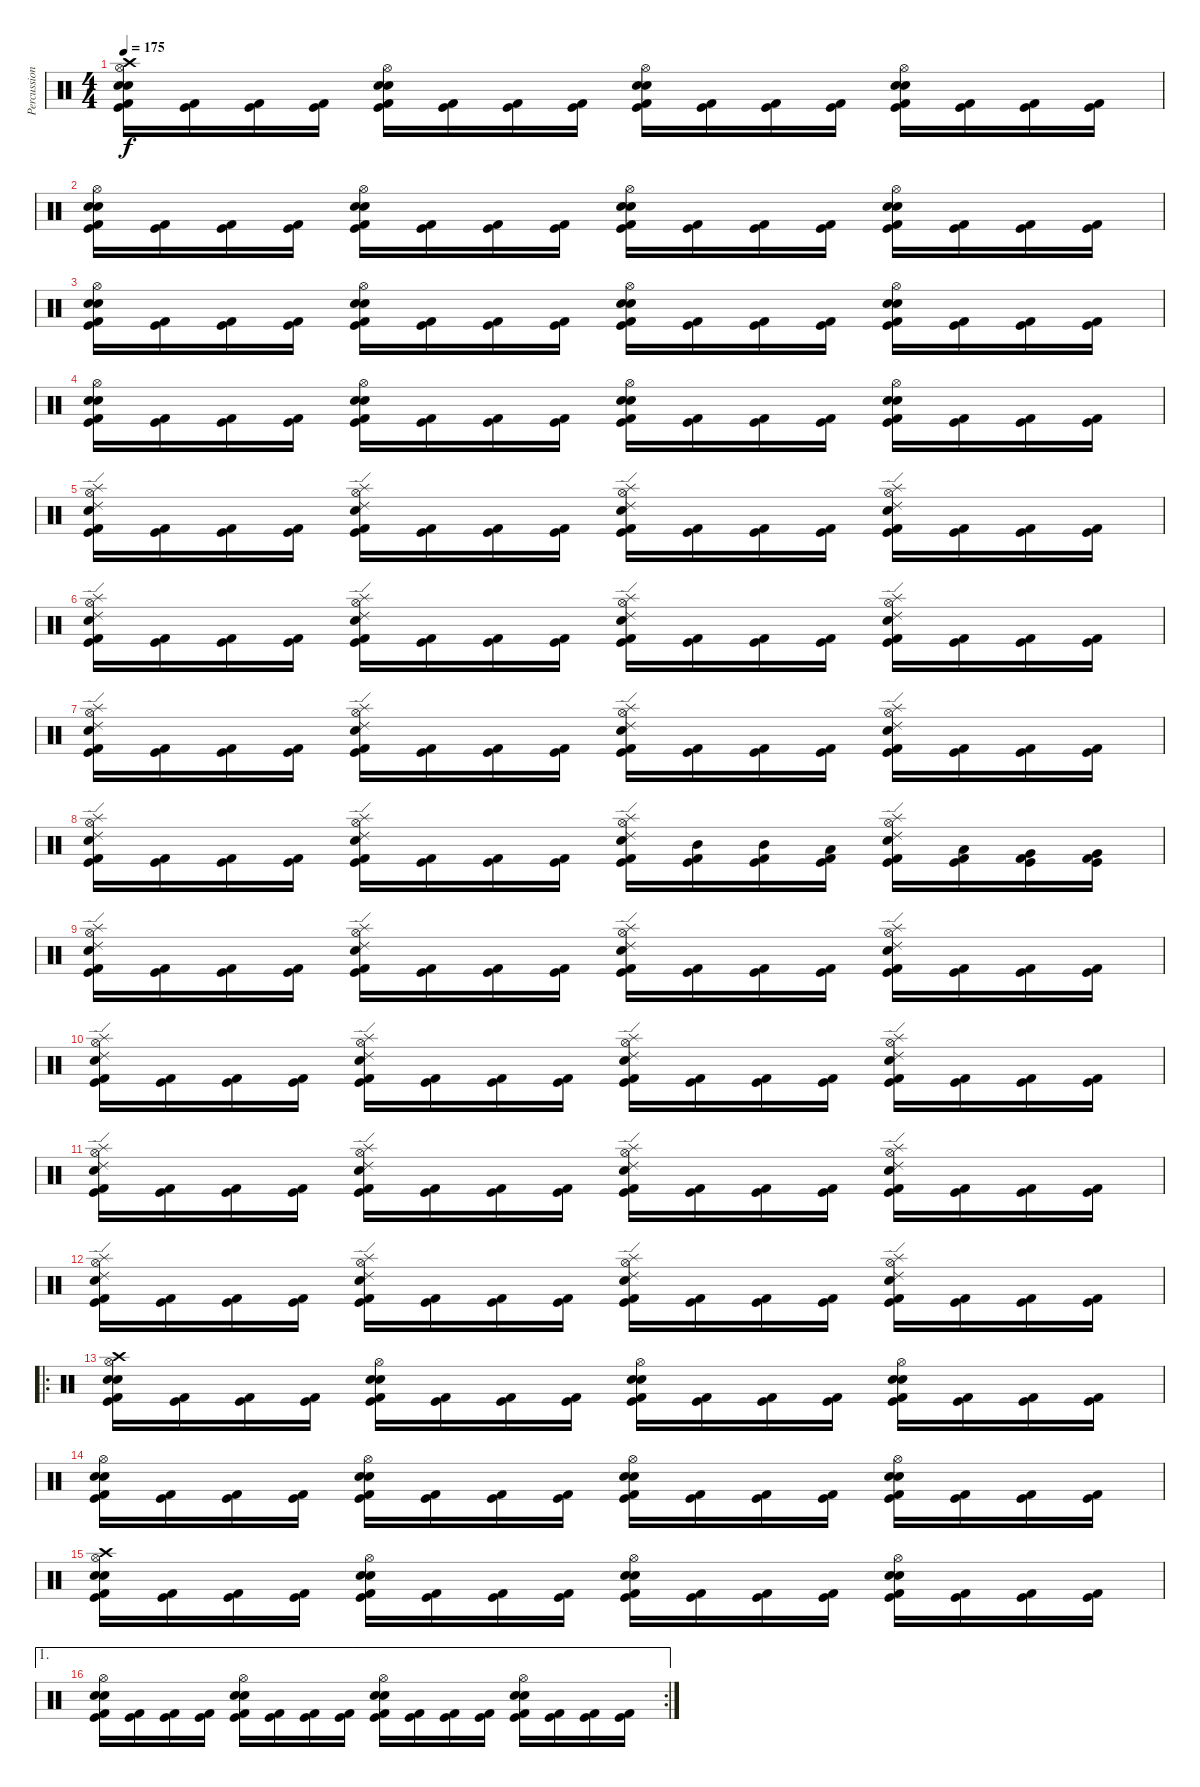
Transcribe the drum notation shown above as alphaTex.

\track ("Percussion" "Percussion") {instrument percussion}
\staff {score}
\articulation defaults
\ts (4 4)
\tempo 175
\clef neutral
\ks c
("Crash high (hit)" "Hi-Hat (open)" "Electric Snare (hit)" "Snare (hit) 2" "Kick (hit) 2" "Kick (hit)").16{dy f} ("Kick (hit) 2" "Kick (hit)").16 ("Kick (hit) 2" "Kick (hit)").16 ("Kick (hit) 2" "Kick (hit)").16 ("Hi-Hat (open)" "Electric Snare (hit)" "Snare (hit) 2" "Kick (hit) 2" "Kick (hit)").16 ("Kick (hit) 2" "Kick (hit)").16 ("Kick (hit) 2" "Kick (hit)").16 ("Kick (hit) 2" "Kick (hit)").16 ("Hi-Hat (open)" "Electric Snare (hit)" "Snare (hit) 2" "Kick (hit) 2" "Kick (hit)").16 ("Kick (hit) 2" "Kick (hit)").16 ("Kick (hit) 2" "Kick (hit)").16 ("Kick (hit) 2" "Kick (hit)").16 ("Hi-Hat (open)" "Electric Snare (hit)" "Snare (hit) 2" "Kick (hit) 2" "Kick (hit)").16 ("Kick (hit) 2" "Kick (hit)").16 ("Kick (hit) 2" "Kick (hit)").16 ("Kick (hit) 2" "Kick (hit)").16 |
("Hi-Hat (open)" "Electric Snare (hit)" "Snare (hit) 2" "Kick (hit) 2" "Kick (hit)").16 ("Kick (hit) 2" "Kick (hit)").16 ("Kick (hit) 2" "Kick (hit)").16 ("Kick (hit) 2" "Kick (hit)").16 ("Hi-Hat (open)" "Electric Snare (hit)" "Snare (hit) 2" "Kick (hit) 2" "Kick (hit)").16 ("Kick (hit) 2" "Kick (hit)").16 ("Kick (hit) 2" "Kick (hit)").16 ("Kick (hit) 2" "Kick (hit)").16 ("Hi-Hat (open)" "Electric Snare (hit)" "Snare (hit) 2" "Kick (hit) 2" "Kick (hit)").16 ("Kick (hit) 2" "Kick (hit)").16 ("Kick (hit) 2" "Kick (hit)").16 ("Kick (hit) 2" "Kick (hit)").16 ("Hi-Hat (open)" "Electric Snare (hit)" "Snare (hit) 2" "Kick (hit) 2" "Kick (hit)").16 ("Kick (hit) 2" "Kick (hit)").16 ("Kick (hit) 2" "Kick (hit)").16 ("Kick (hit) 2" "Kick (hit)").16 |
("Hi-Hat (open)" "Electric Snare (hit)" "Snare (hit) 2" "Kick (hit) 2" "Kick (hit)").16 ("Kick (hit) 2" "Kick (hit)").16 ("Kick (hit) 2" "Kick (hit)").16 ("Kick (hit) 2" "Kick (hit)").16 ("Hi-Hat (open)" "Electric Snare (hit)" "Snare (hit) 2" "Kick (hit) 2" "Kick (hit)").16 ("Kick (hit) 2" "Kick (hit)").16 ("Kick (hit) 2" "Kick (hit)").16 ("Kick (hit) 2" "Kick (hit)").16 ("Hi-Hat (open)" "Electric Snare (hit)" "Snare (hit) 2" "Kick (hit) 2" "Kick (hit)").16 ("Kick (hit) 2" "Kick (hit)").16 ("Kick (hit) 2" "Kick (hit)").16 ("Kick (hit) 2" "Kick (hit)").16 ("Hi-Hat (open)" "Electric Snare (hit)" "Snare (hit) 2" "Kick (hit) 2" "Kick (hit)").16 ("Kick (hit) 2" "Kick (hit)").16 ("Kick (hit) 2" "Kick (hit)").16 ("Kick (hit) 2" "Kick (hit)").16 |
("Hi-Hat (open)" "Electric Snare (hit)" "Snare (hit) 2" "Kick (hit) 2" "Kick (hit)").16 ("Kick (hit) 2" "Kick (hit)").16 ("Kick (hit) 2" "Kick (hit)").16 ("Kick (hit) 2" "Kick (hit)").16 ("Hi-Hat (open)" "Electric Snare (hit)" "Snare (hit) 2" "Kick (hit) 2" "Kick (hit)").16 ("Kick (hit) 2" "Kick (hit)").16 ("Kick (hit) 2" "Kick (hit)").16 ("Kick (hit) 2" "Kick (hit)").16 ("Hi-Hat (open)" "Electric Snare (hit)" "Snare (hit) 2" "Kick (hit) 2" "Kick (hit)").16 ("Kick (hit) 2" "Kick (hit)").16 ("Kick (hit) 2" "Kick (hit)").16 ("Kick (hit) 2" "Kick (hit)").16 ("Hi-Hat (open)" "Electric Snare (hit)" "Snare (hit) 2" "Kick (hit) 2" "Kick (hit)").16 ("Kick (hit) 2" "Kick (hit)").16 ("Kick (hit) 2" "Kick (hit)").16 ("Kick (hit) 2" "Kick (hit)").16 |
("Ride (edge) 2" "Splash (hit)" "Electric Snare (hit)" "Hi-Hat (open)" "Kick (hit) 2" "Kick (hit)").16 ("Kick (hit) 2" "Kick (hit)").16 ("Kick (hit) 2" "Kick (hit)").16 ("Kick (hit) 2" "Kick (hit)").16 ("Ride (edge) 2" "Splash (hit)" "Electric Snare (hit)" "Hi-Hat (open)" "Kick (hit) 2" "Kick (hit)").16 ("Kick (hit) 2" "Kick (hit)").16 ("Kick (hit) 2" "Kick (hit)").16 ("Kick (hit) 2" "Kick (hit)").16 ("Ride (edge) 2" "Splash (hit)" "Electric Snare (hit)" "Hi-Hat (open)" "Kick (hit) 2" "Kick (hit)").16 ("Kick (hit) 2" "Kick (hit)").16 ("Kick (hit) 2" "Kick (hit)").16 ("Kick (hit) 2" "Kick (hit)").16 ("Ride (edge) 2" "Splash (hit)" "Electric Snare (hit)" "Hi-Hat (open)" "Kick (hit) 2" "Kick (hit)").16 ("Kick (hit) 2" "Kick (hit)").16 ("Kick (hit) 2" "Kick (hit)").16 ("Kick (hit) 2" "Kick (hit)").16 |
("Ride (edge) 2" "Splash (hit)" "Electric Snare (hit)" "Hi-Hat (open)" "Kick (hit) 2" "Kick (hit)").16 ("Kick (hit) 2" "Kick (hit)").16 ("Kick (hit) 2" "Kick (hit)").16 ("Kick (hit) 2" "Kick (hit)").16 ("Ride (edge) 2" "Splash (hit)" "Electric Snare (hit)" "Hi-Hat (open)" "Kick (hit) 2" "Kick (hit)").16 ("Kick (hit) 2" "Kick (hit)").16 ("Kick (hit) 2" "Kick (hit)").16 ("Kick (hit) 2" "Kick (hit)").16 ("Ride (edge) 2" "Splash (hit)" "Electric Snare (hit)" "Hi-Hat (open)" "Kick (hit) 2" "Kick (hit)").16 ("Kick (hit) 2" "Kick (hit)").16 ("Kick (hit) 2" "Kick (hit)").16 ("Kick (hit) 2" "Kick (hit)").16 ("Ride (edge) 2" "Splash (hit)" "Electric Snare (hit)" "Hi-Hat (open)" "Kick (hit) 2" "Kick (hit)").16 ("Kick (hit) 2" "Kick (hit)").16 ("Kick (hit) 2" "Kick (hit)").16 ("Kick (hit) 2" "Kick (hit)").16 |
("Ride (edge) 2" "Splash (hit)" "Electric Snare (hit)" "Hi-Hat (open)" "Kick (hit) 2" "Kick (hit)").16 ("Kick (hit) 2" "Kick (hit)").16 ("Kick (hit) 2" "Kick (hit)").16 ("Kick (hit) 2" "Kick (hit)").16 ("Ride (edge) 2" "Splash (hit)" "Electric Snare (hit)" "Hi-Hat (open)" "Kick (hit) 2" "Kick (hit)").16 ("Kick (hit) 2" "Kick (hit)").16 ("Kick (hit) 2" "Kick (hit)").16 ("Kick (hit) 2" "Kick (hit)").16 ("Ride (edge) 2" "Splash (hit)" "Electric Snare (hit)" "Hi-Hat (open)" "Kick (hit) 2" "Kick (hit)").16 ("Kick (hit) 2" "Kick (hit)").16 ("Kick (hit) 2" "Kick (hit)").16 ("Kick (hit) 2" "Kick (hit)").16 ("Ride (edge) 2" "Splash (hit)" "Electric Snare (hit)" "Hi-Hat (open)" "Kick (hit) 2" "Kick (hit)").16 ("Kick (hit) 2" "Kick (hit)").16 ("Kick (hit) 2" "Kick (hit)").16 ("Kick (hit) 2" "Kick (hit)").16 |
("Ride (edge) 2" "Splash (hit)" "Electric Snare (hit)" "Hi-Hat (open)" "Kick (hit) 2" "Kick (hit)").16 ("Kick (hit) 2" "Kick (hit)").16 ("Kick (hit) 2" "Kick (hit)").16 ("Kick (hit) 2" "Kick (hit)").16 ("Ride (edge) 2" "Splash (hit)" "Electric Snare (hit)" "Hi-Hat (open)" "Kick (hit) 2" "Kick (hit)").16 ("Kick (hit) 2" "Kick (hit)").16 ("Kick (hit) 2" "Kick (hit)").16 ("Kick (hit) 2" "Kick (hit)").16 ("Ride (edge) 2" "Splash (hit)" "Electric Snare (hit)" "Hi-Hat (open)" "Kick (hit) 2" "Kick (hit)").16 ("Mid Tom (hit)" "Kick (hit) 2" "Kick (hit)").16 ("Mid Tom (hit)" "Kick (hit) 2" "Kick (hit)").16 ("Low Tom (hit)" "Kick (hit) 2" "Kick (hit)").16 ("Ride (edge) 2" "Splash (hit)" "Electric Snare (hit)" "Hi-Hat (open)" "Kick (hit) 2" "Kick (hit)").16 ("Low Tom (hit)" "Kick (hit) 2" "Kick (hit)").16 ("Very Low Tom (hit)" "Kick (hit) 2" "Kick (hit)").16 ("Very Low Tom (hit)" "Kick (hit) 2" "Kick (hit)").16 |
("Ride (edge) 2" "Splash (hit)" "Electric Snare (hit)" "Hi-Hat (open)" "Kick (hit) 2" "Kick (hit)").16 ("Kick (hit) 2" "Kick (hit)").16 ("Kick (hit) 2" "Kick (hit)").16 ("Kick (hit) 2" "Kick (hit)").16 ("Ride (edge) 2" "Splash (hit)" "Electric Snare (hit)" "Hi-Hat (open)" "Kick (hit) 2" "Kick (hit)").16 ("Kick (hit) 2" "Kick (hit)").16 ("Kick (hit) 2" "Kick (hit)").16 ("Kick (hit) 2" "Kick (hit)").16 ("Ride (edge) 2" "Splash (hit)" "Electric Snare (hit)" "Hi-Hat (open)" "Kick (hit) 2" "Kick (hit)").16 ("Kick (hit) 2" "Kick (hit)").16 ("Kick (hit) 2" "Kick (hit)").16 ("Kick (hit) 2" "Kick (hit)").16 ("Ride (edge) 2" "Splash (hit)" "Electric Snare (hit)" "Hi-Hat (open)" "Kick (hit) 2" "Kick (hit)").16 ("Kick (hit) 2" "Kick (hit)").16 ("Kick (hit) 2" "Kick (hit)").16 ("Kick (hit) 2" "Kick (hit)").16 |
("Ride (edge) 2" "Splash (hit)" "Electric Snare (hit)" "Hi-Hat (open)" "Kick (hit) 2" "Kick (hit)").16 ("Kick (hit) 2" "Kick (hit)").16 ("Kick (hit) 2" "Kick (hit)").16 ("Kick (hit) 2" "Kick (hit)").16 ("Ride (edge) 2" "Splash (hit)" "Electric Snare (hit)" "Hi-Hat (open)" "Kick (hit) 2" "Kick (hit)").16 ("Kick (hit) 2" "Kick (hit)").16 ("Kick (hit) 2" "Kick (hit)").16 ("Kick (hit) 2" "Kick (hit)").16 ("Ride (edge) 2" "Splash (hit)" "Electric Snare (hit)" "Hi-Hat (open)" "Kick (hit) 2" "Kick (hit)").16 ("Kick (hit) 2" "Kick (hit)").16 ("Kick (hit) 2" "Kick (hit)").16 ("Kick (hit) 2" "Kick (hit)").16 ("Ride (edge) 2" "Splash (hit)" "Electric Snare (hit)" "Hi-Hat (open)" "Kick (hit) 2" "Kick (hit)").16 ("Kick (hit) 2" "Kick (hit)").16 ("Kick (hit) 2" "Kick (hit)").16 ("Kick (hit) 2" "Kick (hit)").16 |
("Ride (edge) 2" "Splash (hit)" "Electric Snare (hit)" "Hi-Hat (open)" "Kick (hit) 2" "Kick (hit)").16 ("Kick (hit) 2" "Kick (hit)").16 ("Kick (hit) 2" "Kick (hit)").16 ("Kick (hit) 2" "Kick (hit)").16 ("Ride (edge) 2" "Splash (hit)" "Electric Snare (hit)" "Hi-Hat (open)" "Kick (hit) 2" "Kick (hit)").16 ("Kick (hit) 2" "Kick (hit)").16 ("Kick (hit) 2" "Kick (hit)").16 ("Kick (hit) 2" "Kick (hit)").16 ("Ride (edge) 2" "Splash (hit)" "Electric Snare (hit)" "Hi-Hat (open)" "Kick (hit) 2" "Kick (hit)").16 ("Kick (hit) 2" "Kick (hit)").16 ("Kick (hit) 2" "Kick (hit)").16 ("Kick (hit) 2" "Kick (hit)").16 ("Ride (edge) 2" "Splash (hit)" "Electric Snare (hit)" "Hi-Hat (open)" "Kick (hit) 2" "Kick (hit)").16 ("Kick (hit) 2" "Kick (hit)").16 ("Kick (hit) 2" "Kick (hit)").16 ("Kick (hit) 2" "Kick (hit)").16 |
("Ride (edge) 2" "Splash (hit)" "Electric Snare (hit)" "Hi-Hat (open)" "Kick (hit) 2" "Kick (hit)").16 ("Kick (hit) 2" "Kick (hit)").16 ("Kick (hit) 2" "Kick (hit)").16 ("Kick (hit) 2" "Kick (hit)").16 ("Ride (edge) 2" "Splash (hit)" "Electric Snare (hit)" "Hi-Hat (open)" "Kick (hit) 2" "Kick (hit)").16 ("Kick (hit) 2" "Kick (hit)").16 ("Kick (hit) 2" "Kick (hit)").16 ("Kick (hit) 2" "Kick (hit)").16 ("Ride (edge) 2" "Splash (hit)" "Electric Snare (hit)" "Hi-Hat (open)" "Kick (hit) 2" "Kick (hit)").16 ("Kick (hit) 2" "Kick (hit)").16 ("Kick (hit) 2" "Kick (hit)").16 ("Kick (hit) 2" "Kick (hit)").16 ("Ride (edge) 2" "Splash (hit)" "Electric Snare (hit)" "Hi-Hat (open)" "Kick (hit) 2" "Kick (hit)").16 ("Kick (hit) 2" "Kick (hit)").16 ("Kick (hit) 2" "Kick (hit)").16 ("Kick (hit) 2" "Kick (hit)").16 |
\ro
("Crash high (hit)" "Hi-Hat (open)" "Electric Snare (hit)" "Snare (hit) 2" "Kick (hit) 2" "Kick (hit)").16 ("Kick (hit) 2" "Kick (hit)").16 ("Kick (hit) 2" "Kick (hit)").16 ("Kick (hit) 2" "Kick (hit)").16 ("Hi-Hat (open)" "Electric Snare (hit)" "Snare (hit) 2" "Kick (hit) 2" "Kick (hit)").16 ("Kick (hit) 2" "Kick (hit)").16 ("Kick (hit) 2" "Kick (hit)").16 ("Kick (hit) 2" "Kick (hit)").16 ("Hi-Hat (open)" "Electric Snare (hit)" "Snare (hit) 2" "Kick (hit) 2" "Kick (hit)").16 ("Kick (hit) 2" "Kick (hit)").16 ("Kick (hit) 2" "Kick (hit)").16 ("Kick (hit) 2" "Kick (hit)").16 ("Hi-Hat (open)" "Electric Snare (hit)" "Snare (hit) 2" "Kick (hit) 2" "Kick (hit)").16 ("Kick (hit) 2" "Kick (hit)").16 ("Kick (hit) 2" "Kick (hit)").16 ("Kick (hit) 2" "Kick (hit)").16 |
("Hi-Hat (open)" "Electric Snare (hit)" "Snare (hit) 2" "Kick (hit) 2" "Kick (hit)").16 ("Kick (hit) 2" "Kick (hit)").16 ("Kick (hit) 2" "Kick (hit)").16 ("Kick (hit) 2" "Kick (hit)").16 ("Hi-Hat (open)" "Electric Snare (hit)" "Snare (hit) 2" "Kick (hit) 2" "Kick (hit)").16 ("Kick (hit) 2" "Kick (hit)").16 ("Kick (hit) 2" "Kick (hit)").16 ("Kick (hit) 2" "Kick (hit)").16 ("Hi-Hat (open)" "Electric Snare (hit)" "Snare (hit) 2" "Kick (hit) 2" "Kick (hit)").16 ("Kick (hit) 2" "Kick (hit)").16 ("Kick (hit) 2" "Kick (hit)").16 ("Kick (hit) 2" "Kick (hit)").16 ("Hi-Hat (open)" "Electric Snare (hit)" "Snare (hit) 2" "Kick (hit) 2" "Kick (hit)").16 ("Kick (hit) 2" "Kick (hit)").16 ("Kick (hit) 2" "Kick (hit)").16 ("Kick (hit) 2" "Kick (hit)").16 |
("Crash high (hit)" "Hi-Hat (open)" "Electric Snare (hit)" "Snare (hit) 2" "Kick (hit) 2" "Kick (hit)").16 ("Kick (hit) 2" "Kick (hit)").16 ("Kick (hit) 2" "Kick (hit)").16 ("Kick (hit) 2" "Kick (hit)").16 ("Hi-Hat (open)" "Electric Snare (hit)" "Snare (hit) 2" "Kick (hit) 2" "Kick (hit)").16 ("Kick (hit) 2" "Kick (hit)").16 ("Kick (hit) 2" "Kick (hit)").16 ("Kick (hit) 2" "Kick (hit)").16 ("Hi-Hat (open)" "Electric Snare (hit)" "Snare (hit) 2" "Kick (hit) 2" "Kick (hit)").16 ("Kick (hit) 2" "Kick (hit)").16 ("Kick (hit) 2" "Kick (hit)").16 ("Kick (hit) 2" "Kick (hit)").16 ("Hi-Hat (open)" "Electric Snare (hit)" "Snare (hit) 2" "Kick (hit) 2" "Kick (hit)").16 ("Kick (hit) 2" "Kick (hit)").16 ("Kick (hit) 2" "Kick (hit)").16 ("Kick (hit) 2" "Kick (hit)").16 |
\ae 1
\rc 2
("Hi-Hat (open)" "Electric Snare (hit)" "Snare (hit) 2" "Kick (hit) 2" "Kick (hit)").16 ("Kick (hit) 2" "Kick (hit)").16 ("Kick (hit) 2" "Kick (hit)").16 ("Kick (hit) 2" "Kick (hit)").16 ("Hi-Hat (open)" "Electric Snare (hit)" "Snare (hit) 2" "Kick (hit) 2" "Kick (hit)").16 ("Kick (hit) 2" "Kick (hit)").16 ("Kick (hit) 2" "Kick (hit)").16 ("Kick (hit) 2" "Kick (hit)").16 ("Hi-Hat (open)" "Electric Snare (hit)" "Snare (hit) 2" "Kick (hit) 2" "Kick (hit)").16 ("Kick (hit) 2" "Kick (hit)").16 ("Kick (hit) 2" "Kick (hit)").16 ("Kick (hit) 2" "Kick (hit)").16 ("Hi-Hat (open)" "Electric Snare (hit)" "Snare (hit) 2" "Kick (hit) 2" "Kick (hit)").16 ("Kick (hit) 2" "Kick (hit)").16 ("Kick (hit) 2" "Kick (hit)").16 ("Kick (hit) 2" "Kick (hit)").16
